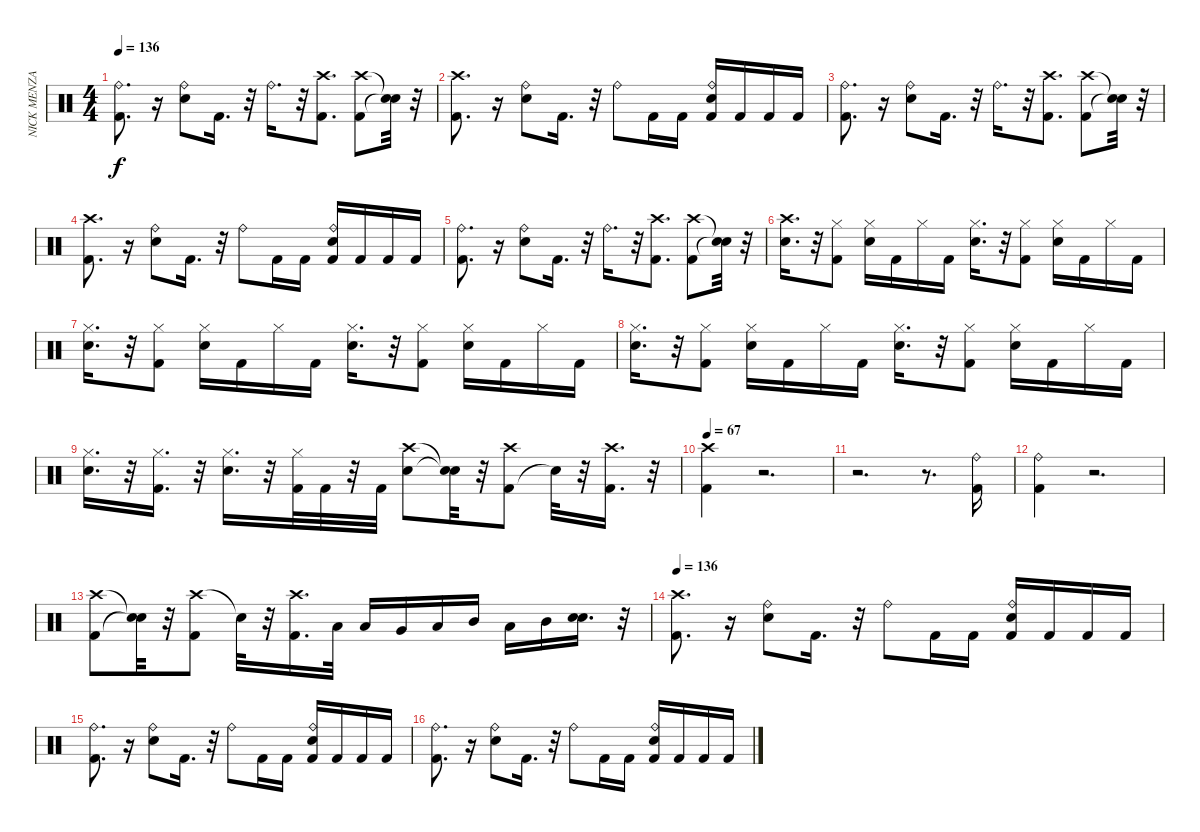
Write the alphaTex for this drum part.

\track ("NICK MENZA" "NICK MENZA") {instrument percussion}
\staff {score}
\articulation defaults
\ts (4 4)
\tempo 136
\clef neutral
\ks c
("Kick (hit) 2" "Ride (bell)").8{d dy f} r.16 ("Snare (hit) 2" "Ride (bell)").8 "Kick (hit) 2".16{d} r.32 "Ride (bell)".16{d} r.32 ("Kick (hit) 2" "Crash high (hit)").8{d} ("Crash high (hit)" "Kick (hit) 2").8 ("Snare (hit)"{t} "Snare (hit)"{t}).32 r.32 |
("Crash high (hit)" "Kick (hit) 2").8{d} r.16 ("Snare (hit) 2" "Ride (bell)").8 "Kick (hit) 2".16{d} r.32 "Ride (bell)".8 "Kick (hit) 2".16 "Kick (hit) 2".16 ("Snare (hit) 2" "Ride (bell)" "Kick (hit) 2").16 "Kick (hit) 2".16 "Kick (hit) 2".16 "Kick (hit) 2".16 |
("Ride (bell)" "Kick (hit) 2").8{d} r.16 ("Snare (hit) 2" "Ride (bell)").8 "Kick (hit) 2".16{d} r.32 "Ride (bell)".16{d} r.32 ("Kick (hit) 2" "Crash high (hit)").8{d} ("Kick (hit) 2" "Crash high (hit)").8 ("Snare (hit)"{t} "Snare (hit)"{t}).32 r.32 |
("Crash high (hit)" "Kick (hit) 2").8{d} r.16 ("Snare (hit) 2" "Ride (bell)").8 "Kick (hit) 2".16{d} r.32 "Ride (bell)".8 "Kick (hit) 2".16 "Kick (hit) 2".16 ("Snare (hit) 2" "Ride (bell)" "Kick (hit) 2").16 "Kick (hit) 2".16 "Kick (hit) 2".16 "Kick (hit) 2".16 |
("Kick (hit) 2" "Ride (bell)").8{d} r.16 ("Ride (bell)" "Snare (hit) 2").8 "Kick (hit) 2".16{d} r.32 "Ride (bell)".16{d} r.32 ("Kick (hit) 2" "Crash high (hit)").8{d} ("Crash high (hit)" "Kick (hit) 2").8 ("Snare (hit)"{t} "Snare (hit)"{t}).32 r.32 |
("Snare (hit) 2" "Crash high (hit)").16{d} r.32 ("Kick (hit) 2" "Hi-Hat (closed)").8 ("Snare (hit) 2" "Hi-Hat (closed)").16 "Kick (hit) 2".16 "Hi-Hat (closed)".16 "Kick (hit) 2".16 ("Hi-Hat (closed)" "Snare (hit) 2").16{d} r.32 ("Kick (hit) 2" "Hi-Hat (closed)").8 ("Hi-Hat (closed)" "Snare (hit) 2").16 "Kick (hit) 2".16 "Hi-Hat (closed)".16 "Kick (hit) 2".16 |
("Snare (hit) 2" "Hi-Hat (closed)").16{d} r.32 ("Hi-Hat (closed)" "Kick (hit) 2").8 ("Hi-Hat (closed)" "Snare (hit) 2").16 "Kick (hit) 2".16 "Hi-Hat (closed)".16 "Kick (hit) 2".16 ("Snare (hit) 2" "Hi-Hat (closed)").16{d} r.32 ("Kick (hit) 2" "Hi-Hat (closed)").8 ("Hi-Hat (closed)" "Snare (hit) 2").16 "Kick (hit) 2".16 "Hi-Hat (closed)".16 "Kick (hit) 2".16 |
("Snare (hit) 2" "Hi-Hat (closed)").16{d} r.32 ("Hi-Hat (closed)" "Kick (hit) 2").8 ("Hi-Hat (closed)" "Snare (hit) 2").16 "Kick (hit) 2".16 "Hi-Hat (closed)".16 "Kick (hit) 2".16 ("Snare (hit) 2" "Hi-Hat (closed)").16{d} r.32 ("Kick (hit) 2" "Hi-Hat (closed)").8 ("Hi-Hat (closed)" "Snare (hit) 2").16 "Kick (hit) 2".16 "Hi-Hat (closed)".16 "Kick (hit) 2".16 |
("Snare (hit) 2" "Hi-Hat (closed)").16{d} r.32 ("Kick (hit) 2" "Hi-Hat (closed)").16{d} r.32 ("Snare (hit) 2" "Hi-Hat (closed)").16{d} r.32 ("Kick (hit) 2" "Hi-Hat (closed)").32 "Kick (hit) 2".32 r.32 "Kick (hit) 2".32 ("Snare (hit) 2" "Crash high (hit)").8 ("Snare (hit)"{t} "Snare (hit)"{t}).32 r.32 ("Kick (hit) 2" "Crash high (hit)").8 "Snare (hit)"{t}.32 r.32 ("Kick (hit) 2" "Crash high (hit)").16{d} r.32 |
\tempo 67
("Crash high (hit)" "Kick (hit) 2").4 r.2{d} |
r.2{d} r.8{d} ("Kick (hit) 2" "Ride (bell)").16 |
("Kick (hit) 2" "Ride (bell)").4 r.2{d} |
("Kick (hit) 2" "Crash high (hit)").8 ("Snare (hit)"{t} "Snare (hit)"{t}).32 r.32 ("Crash high (hit)" "Kick (hit) 2").8 "Snare (hit)"{t}.32 r.32 ("Crash high (hit)" "Kick (hit) 2").16{d} "Low Tom (hit)".32 "Low Tom (hit)".16 "Very Low Tom (hit)".16 "Low Tom (hit)".16 "Mid Tom (hit)".16 "Low Tom (hit)".16 "Mid Tom (hit)".16 ("Snare (hit) 2" "Snare (hit) 2").16{d} r.32 |
\tempo 136
("Kick (hit) 2" "Crash high (hit)").8{d} r.16 ("Snare (hit) 2" "Ride (bell)").8 "Kick (hit) 2".16{d} r.32 "Ride (bell)".8 "Kick (hit) 2".16 "Kick (hit) 2".16 ("Ride (bell)" "Snare (hit) 2" "Kick (hit) 2").16 "Kick (hit) 2".16 "Kick (hit) 2".16 "Kick (hit) 2".16 |
("Kick (hit) 2" "Ride (bell)").8{d} r.16 ("Ride (bell)" "Snare (hit) 2").8 "Kick (hit) 2".16{d} r.32 "Ride (bell)".8 "Kick (hit) 2".16 "Kick (hit) 2".16 ("Snare (hit) 2" "Ride (bell)" "Kick (hit) 2").16 "Kick (hit) 2".16 "Kick (hit) 2".16 "Kick (hit) 2".16 |
("Kick (hit) 2" "Ride (bell)").8{d} r.16 ("Ride (bell)" "Snare (hit) 2").8 "Kick (hit) 2".16{d} r.32 "Ride (bell)".8 "Kick (hit) 2".16 "Kick (hit) 2".16 ("Ride (bell)" "Snare (hit) 2" "Kick (hit) 2").16 "Kick (hit) 2".16 "Kick (hit) 2".16 "Kick (hit) 2".16
